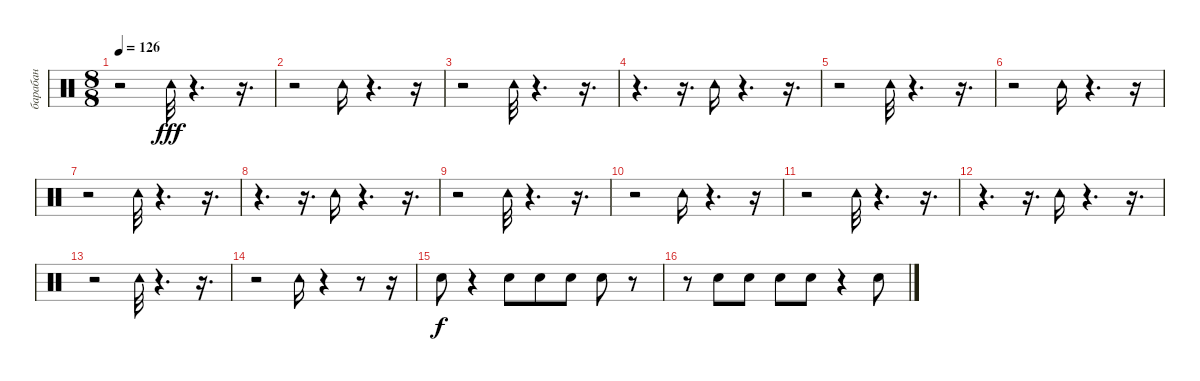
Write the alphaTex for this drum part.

\track ("барабан" "барабан") {instrument percussion}
\staff {score}
\articulation defaults
\ts (8 8)
\tempo 126
\clef neutral
\ks c
r.2{dy fff} "Tambourine (hit)".32 r.4{d} r.16{d} |
r.2 "Tambourine (hit)".16 r.4{d} r.16 |
r.2 "Tambourine (hit)".32 r.4{d} r.16{d} |
r.4{d} r.16{d} "Tambourine (hit)".16 r.4{d} r.16{d} |
r.2 "Tambourine (hit)".32 r.4{d} r.16{d} |
r.2 "Tambourine (hit)".16 r.4{d} r.16 |
r.2 "Tambourine (hit)".32 r.4{d} r.16{d} |
r.4{d} r.16{d} "Tambourine (hit)".16 r.4{d} r.16{d} |
r.2 "Tambourine (hit)".32 r.4{d} r.16{d} |
r.2 "Tambourine (hit)".16 r.4{d} r.16 |
r.2 "Tambourine (hit)".32 r.4{d} r.16{d} |
r.4{d} r.16{d} "Tambourine (hit)".16 r.4{d} r.16{d} |
r.2 "Tambourine (hit)".32 r.4{d} r.16{d} |
r.2 "Tambourine (hit)".16 r.4 r.8 r.16 |
"Electric Snare (hit)".8{dy f} r.4 "Electric Snare (hit)".8 "Electric Snare (hit)".8 "Electric Snare (hit)".8 "Electric Snare (hit)".8 r.8 |
r.8 "Electric Snare (hit)".8 "Electric Snare (hit)".8 "Electric Snare (hit)".8 "Electric Snare (hit)".8 r.4 "Electric Snare (hit)".8
